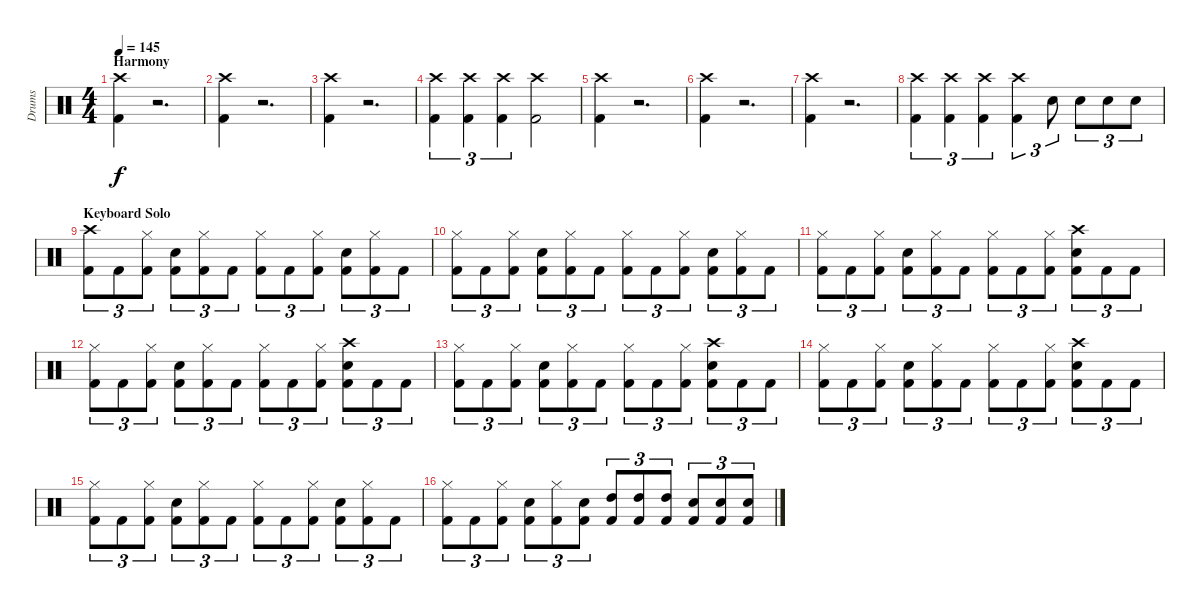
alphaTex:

\track ("Drums" "Drums") {instrument percussion}
\staff {score}
\articulation defaults
\ts (4 4)
\section ("" "Harmony")
\tempo 145
\clef neutral
\ks c
("Crash high (hit)" "Kick (hit) 2").4{dy f} r.2{d} |
("Crash high (hit)" "Kick (hit) 2").4 r.2{d} |
("Crash high (hit)" "Kick (hit) 2").4 r.2{d} |
("Kick (hit) 2" "Crash high (hit)").4{tu (3 2)} ("Kick (hit) 2" "Crash high (hit)").4{tu (3 2)} ("Kick (hit) 2" "Crash high (hit)").4{tu (3 2)} ("Kick (hit) 2" "Crash high (hit)").2 |
("Crash high (hit)" "Kick (hit) 2").4 r.2{d} |
("Crash high (hit)" "Kick (hit) 2").4 r.2{d} |
("Crash high (hit)" "Kick (hit) 2").4 r.2{d} |
("Kick (hit) 2" "Crash high (hit)").4{tu (3 2)} ("Kick (hit) 2" "Crash high (hit)").4{tu (3 2)} ("Kick (hit) 2" "Crash high (hit)").4{tu (3 2)} ("Kick (hit) 2" "Crash high (hit)").4{tu (3 2)} "Snare (hit) 2".8{tu (3 2)} "Snare (hit) 2".8{tu (3 2)} "Snare (hit) 2".8{tu (3 2)} "Snare (hit) 2".8{tu (3 2)} |
\section ("" "Keyboard Solo")
("Crash high (hit)" "Kick (hit) 2").8{tu (3 2)} "Kick (hit) 2".8{tu (3 2)} ("Hi-Hat (closed)" "Kick (hit) 2").8{tu (3 2)} ("Snare (hit) 2" "Kick (hit) 2").8{tu (3 2)} ("Hi-Hat (closed)" "Kick (hit) 2").8{tu (3 2)} "Kick (hit) 2".8{tu (3 2)} ("Hi-Hat (closed)" "Kick (hit) 2").8{tu (3 2)} "Kick (hit) 2".8{tu (3 2)} ("Hi-Hat (closed)" "Kick (hit) 2").8{tu (3 2)} ("Snare (hit) 2" "Kick (hit) 2").8{tu (3 2)} ("Hi-Hat (closed)" "Kick (hit) 2").8{tu (3 2)} "Kick (hit) 2".8{tu (3 2)} |
("Kick (hit) 2" "Hi-Hat (closed)").8{tu (3 2)} "Kick (hit) 2".8{tu (3 2)} ("Hi-Hat (closed)" "Kick (hit) 2").8{tu (3 2)} ("Snare (hit) 2" "Kick (hit) 2").8{tu (3 2)} ("Hi-Hat (closed)" "Kick (hit) 2").8{tu (3 2)} "Kick (hit) 2".8{tu (3 2)} ("Hi-Hat (closed)" "Kick (hit) 2").8{tu (3 2)} "Kick (hit) 2".8{tu (3 2)} ("Hi-Hat (closed)" "Kick (hit) 2").8{tu (3 2)} ("Snare (hit) 2" "Kick (hit) 2").8{tu (3 2)} ("Hi-Hat (closed)" "Kick (hit) 2").8{tu (3 2)} "Kick (hit) 2".8{tu (3 2)} |
("Kick (hit) 2" "Hi-Hat (closed)").8{tu (3 2)} "Kick (hit) 2".8{tu (3 2)} ("Hi-Hat (closed)" "Kick (hit) 2").8{tu (3 2)} ("Snare (hit) 2" "Kick (hit) 2").8{tu (3 2)} ("Hi-Hat (closed)" "Kick (hit) 2").8{tu (3 2)} "Kick (hit) 2".8{tu (3 2)} ("Hi-Hat (closed)" "Kick (hit) 2").8{tu (3 2)} "Kick (hit) 2".8{tu (3 2)} ("Hi-Hat (closed)" "Kick (hit) 2").8{tu (3 2)} ("Snare (hit) 2" "Kick (hit) 2" "Crash high (hit)").8{tu (3 2)} "Kick (hit) 2".8{tu (3 2)} "Kick (hit) 2".8{tu (3 2)} |
("Kick (hit) 2" "Hi-Hat (closed)").8{tu (3 2)} "Kick (hit) 2".8{tu (3 2)} ("Hi-Hat (closed)" "Kick (hit) 2").8{tu (3 2)} ("Snare (hit) 2" "Kick (hit) 2").8{tu (3 2)} ("Hi-Hat (closed)" "Kick (hit) 2").8{tu (3 2)} "Kick (hit) 2".8{tu (3 2)} ("Hi-Hat (closed)" "Kick (hit) 2").8{tu (3 2)} "Kick (hit) 2".8{tu (3 2)} ("Hi-Hat (closed)" "Kick (hit) 2").8{tu (3 2)} ("Snare (hit) 2" "Kick (hit) 2" "Crash high (hit)").8{tu (3 2)} "Kick (hit) 2".8{tu (3 2)} "Kick (hit) 2".8{tu (3 2)} |
("Kick (hit) 2" "Hi-Hat (closed)").8{tu (3 2)} "Kick (hit) 2".8{tu (3 2)} ("Hi-Hat (closed)" "Kick (hit) 2").8{tu (3 2)} ("Snare (hit) 2" "Kick (hit) 2").8{tu (3 2)} ("Hi-Hat (closed)" "Kick (hit) 2").8{tu (3 2)} "Kick (hit) 2".8{tu (3 2)} ("Hi-Hat (closed)" "Kick (hit) 2").8{tu (3 2)} "Kick (hit) 2".8{tu (3 2)} ("Hi-Hat (closed)" "Kick (hit) 2").8{tu (3 2)} ("Snare (hit) 2" "Kick (hit) 2" "Crash high (hit)").8{tu (3 2)} "Kick (hit) 2".8{tu (3 2)} "Kick (hit) 2".8{tu (3 2)} |
("Kick (hit) 2" "Hi-Hat (closed)").8{tu (3 2)} "Kick (hit) 2".8{tu (3 2)} ("Hi-Hat (closed)" "Kick (hit) 2").8{tu (3 2)} ("Snare (hit) 2" "Kick (hit) 2").8{tu (3 2)} ("Hi-Hat (closed)" "Kick (hit) 2").8{tu (3 2)} "Kick (hit) 2".8{tu (3 2)} ("Hi-Hat (closed)" "Kick (hit) 2").8{tu (3 2)} "Kick (hit) 2".8{tu (3 2)} ("Hi-Hat (closed)" "Kick (hit) 2").8{tu (3 2)} ("Snare (hit) 2" "Kick (hit) 2" "Crash high (hit)").8{tu (3 2)} "Kick (hit) 2".8{tu (3 2)} "Kick (hit) 2".8{tu (3 2)} |
("Kick (hit) 2" "Hi-Hat (closed)").8{tu (3 2)} "Kick (hit) 2".8{tu (3 2)} ("Hi-Hat (closed)" "Kick (hit) 2").8{tu (3 2)} ("Snare (hit) 2" "Kick (hit) 2").8{tu (3 2)} ("Hi-Hat (closed)" "Kick (hit) 2").8{tu (3 2)} "Kick (hit) 2".8{tu (3 2)} ("Hi-Hat (closed)" "Kick (hit) 2").8{tu (3 2)} "Kick (hit) 2".8{tu (3 2)} ("Hi-Hat (closed)" "Kick (hit) 2").8{tu (3 2)} ("Snare (hit) 2" "Kick (hit) 2").8{tu (3 2)} ("Hi-Hat (closed)" "Kick (hit) 2").8{tu (3 2)} "Kick (hit) 2".8{tu (3 2)} |
("Kick (hit) 2" "Hi-Hat (closed)").8{tu (3 2)} "Kick (hit) 2".8{tu (3 2)} ("Hi-Hat (closed)" "Kick (hit) 2").8{tu (3 2)} ("Snare (hit) 2" "Kick (hit) 2").8{tu (3 2)} ("Hi-Hat (closed)" "Kick (hit) 2").8{tu (3 2)} ("Snare (hit) 2" "Kick (hit) 2").8{tu (3 2)} ("Kick (hit) 2" "High Tom (hit)").8{tu (3 2)} ("Kick (hit) 2" "High Tom (hit)").8{tu (3 2)} ("Kick (hit) 2" "High Tom (hit)").8{tu (3 2)} ("Kick (hit) 2" "Electric Snare (hit)").8{tu (3 2)} ("Kick (hit) 2" "Electric Snare (hit)").8{tu (3 2)} ("Kick (hit) 2" "Electric Snare (hit)").8{tu (3 2)}
